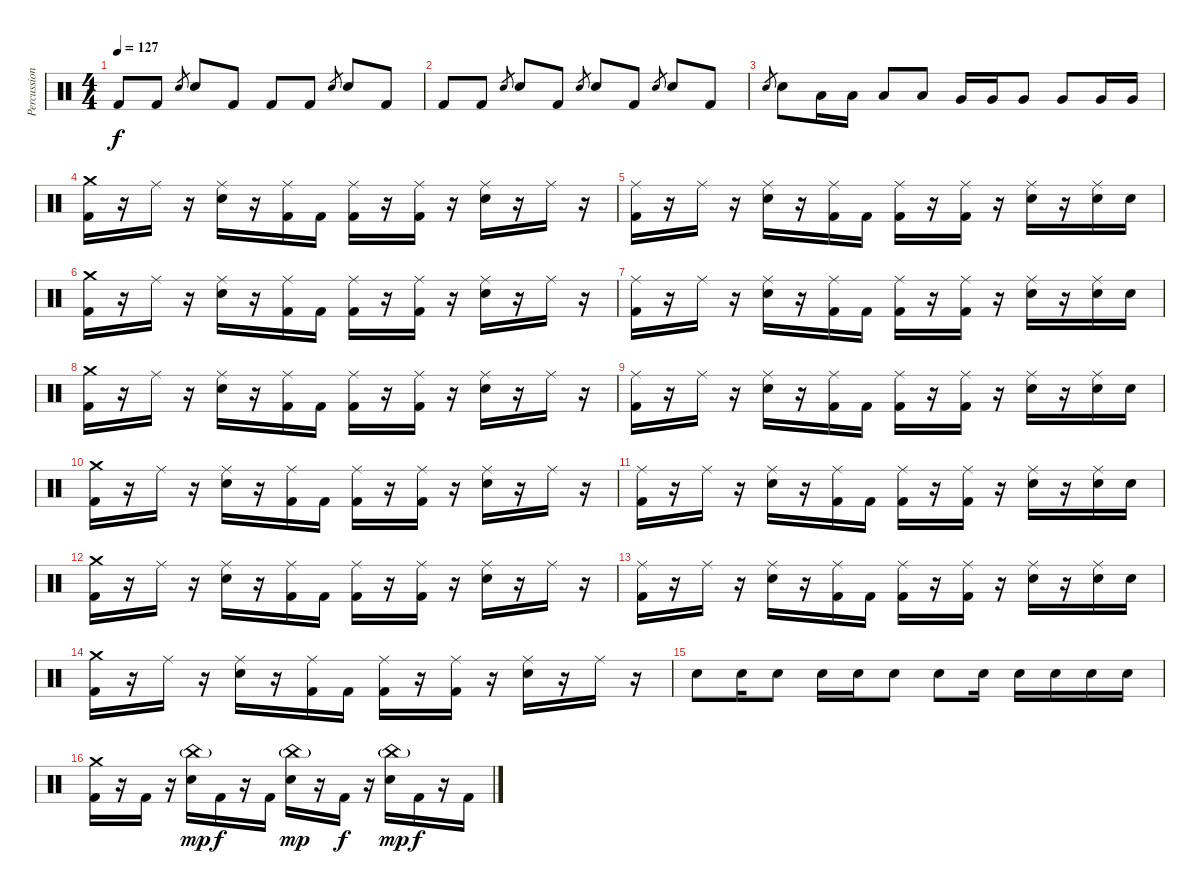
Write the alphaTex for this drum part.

\track ("Percussion" "Percussion") {instrument percussion}
\staff {score}
\articulation defaults
\ts (4 4)
\tempo 127
\clef neutral
\ks c "Kick (hit) 2".8{dy f} "Kick (hit) 2".8 "Electric Snare (hit)".8{gr} "Electric Snare (hit)".8 "Kick (hit) 2".8 "Kick (hit) 2".8 "Kick (hit) 2".8 "Electric Snare (hit)".8{gr} "Electric Snare (hit)".8 "Kick (hit) 2".8
|
"Kick (hit) 2".8 "Kick (hit) 2".8 "Electric Snare (hit)".8{gr} "Electric Snare (hit)".8 "Kick (hit) 2".8 "Electric Snare (hit)".8{gr} "Electric Snare (hit)".8 "Kick (hit) 2".8 "Electric Snare (hit)".8{gr} "Electric Snare (hit)".8 "Kick (hit) 2".8 |
"Electric Snare (hit)".8{gr} "Electric Snare (hit)".8 "Low Tom (hit)".16 "Low Tom (hit)".16 "Low Tom (hit)".8 "Low Tom (hit)".8 "Very Low Tom (hit)".16 "Very Low Tom (hit)".16 "Very Low Tom (hit)".8 "Very Low Tom (hit)".8 "Very Low Tom (hit)".16 "Very Low Tom (hit)".16 |
("Crash medium (hit)" "Kick (hit) 2").16 r.16 "Ride (middle)".16 r.16 ("Ride (middle)" "Electric Snare (hit)").16 r.16 ("Ride (middle)" "Kick (hit) 2").16 "Kick (hit) 2".16 ("Ride (middle)" "Kick (hit) 2").16 r.16 ("Ride (middle)" "Kick (hit) 2").16 r.16 ("Ride (middle)" "Electric Snare (hit)").16 r.16 "Ride (middle)".16 r.16 |
("Ride (middle)" "Kick (hit) 2").16 r.16 "Ride (middle)".16 r.16 ("Ride (middle)" "Electric Snare (hit)").16 r.16 ("Ride (middle)" "Kick (hit) 2").16 "Kick (hit) 2".16 ("Ride (middle)" "Kick (hit) 2").16 r.16 ("Ride (middle)" "Kick (hit) 2").16 r.16 ("Ride (middle)" "Electric Snare (hit)").16 r.16 ("Ride (middle)" "Electric Snare (hit)").16 "Electric Snare (hit)".16 |
("Crash medium (hit)" "Kick (hit) 2").16 r.16 "Ride (middle)".16 r.16 ("Ride (middle)" "Electric Snare (hit)").16 r.16 ("Ride (middle)" "Kick (hit) 2").16 "Kick (hit) 2".16 ("Ride (middle)" "Kick (hit) 2").16 r.16 ("Ride (middle)" "Kick (hit) 2").16 r.16 ("Ride (middle)" "Electric Snare (hit)").16 r.16 "Ride (middle)".16 r.16 |
("Ride (middle)" "Kick (hit) 2").16 r.16 "Ride (middle)".16 r.16 ("Ride (middle)" "Electric Snare (hit)").16 r.16 ("Ride (middle)" "Kick (hit) 2").16 "Kick (hit) 2".16 ("Ride (middle)" "Kick (hit) 2").16 r.16 ("Ride (middle)" "Kick (hit) 2").16 r.16 ("Ride (middle)" "Electric Snare (hit)").16 r.16 ("Ride (middle)" "Electric Snare (hit)").16 "Electric Snare (hit)".16 |
("Crash medium (hit)" "Kick (hit) 2").16 r.16 "Ride (middle)".16 r.16 ("Ride (middle)" "Electric Snare (hit)").16 r.16 ("Ride (middle)" "Kick (hit) 2").16 "Kick (hit) 2".16 ("Ride (middle)" "Kick (hit) 2").16 r.16 ("Ride (middle)" "Kick (hit) 2").16 r.16 ("Ride (middle)" "Electric Snare (hit)").16 r.16 "Ride (middle)".16 r.16 |
("Ride (middle)" "Kick (hit) 2").16 r.16 "Ride (middle)".16 r.16 ("Ride (middle)" "Electric Snare (hit)").16 r.16 ("Ride (middle)" "Kick (hit) 2").16 "Kick (hit) 2".16 ("Ride (middle)" "Kick (hit) 2").16 r.16 ("Ride (middle)" "Kick (hit) 2").16 r.16 ("Ride (middle)" "Electric Snare (hit)").16 r.16 ("Ride (middle)" "Electric Snare (hit)").16 "Electric Snare (hit)".16 |
("Crash medium (hit)" "Kick (hit) 2").16 r.16 "Ride (middle)".16 r.16 ("Ride (middle)" "Electric Snare (hit)").16 r.16 ("Ride (middle)" "Kick (hit) 2").16 "Kick (hit) 2".16 ("Ride (middle)" "Kick (hit) 2").16 r.16 ("Ride (middle)" "Kick (hit) 2").16 r.16 ("Ride (middle)" "Electric Snare (hit)").16 r.16 "Ride (middle)".16 r.16 |
("Ride (middle)" "Kick (hit) 2").16 r.16 "Ride (middle)".16 r.16 ("Ride (middle)" "Electric Snare (hit)").16 r.16 ("Ride (middle)" "Kick (hit) 2").16 "Kick (hit) 2".16 ("Ride (middle)" "Kick (hit) 2").16 r.16 ("Ride (middle)" "Kick (hit) 2").16 r.16 ("Ride (middle)" "Electric Snare (hit)").16 r.16 ("Ride (middle)" "Electric Snare (hit)").16 "Electric Snare (hit)".16 |
("Crash medium (hit)" "Kick (hit) 2").16 r.16 "Ride (middle)".16 r.16 ("Ride (middle)" "Electric Snare (hit)").16 r.16 ("Ride (middle)" "Kick (hit) 2").16 "Kick (hit) 2".16 ("Ride (middle)" "Kick (hit) 2").16 r.16 ("Ride (middle)" "Kick (hit) 2").16 r.16 ("Ride (middle)" "Electric Snare (hit)").16 r.16 "Ride (middle)".16 r.16 |
("Ride (middle)" "Kick (hit) 2").16 r.16 "Ride (middle)".16 r.16 ("Ride (middle)" "Electric Snare (hit)").16 r.16 ("Ride (middle)" "Kick (hit) 2").16 "Kick (hit) 2".16 ("Ride (middle)" "Kick (hit) 2").16 r.16 ("Ride (middle)" "Kick (hit) 2").16 r.16 ("Ride (middle)" "Electric Snare (hit)").16 r.16 ("Ride (middle)" "Electric Snare (hit)").16 "Electric Snare (hit)".16 |
("Crash medium (hit)" "Kick (hit) 2").16 r.16 "Ride (middle)".16 r.16 ("Ride (middle)" "Electric Snare (hit)").16 r.16 ("Ride (middle)" "Kick (hit) 2").16 "Kick (hit) 2".16 ("Ride (middle)" "Kick (hit) 2").16 r.16 ("Ride (middle)" "Kick (hit) 2").16 r.16 ("Ride (middle)" "Electric Snare (hit)").16 r.16 "Ride (middle)".16 r.16 |
"Electric Snare (hit)".8 "Electric Snare (hit)".16 "Electric Snare (hit)".8 "Electric Snare (hit)".16 "Electric Snare (hit)".16 "Electric Snare (hit)".8 "Electric Snare (hit)".8 "Electric Snare (hit)".16 "Electric Snare (hit)".16 "Electric Snare (hit)".16 "Electric Snare (hit)".16 "Electric Snare (hit)".16 |
("Crash medium (hit)" "Kick (hit) 2").16 r.16 "Kick (hit) 2".16 r.16 ("China (hit)"{g} "Electric Snare (hit)").16{dy mp} "Kick (hit) 2".16{dy f} r.16 "Kick (hit) 2".16 ("China (hit)"{g} "Electric Snare (hit)").16{dy mp} r.16 "Kick (hit) 2".16{dy f} r.16 ("China (hit)"{g} "Electric Snare (hit)").16{dy mp} "Kick (hit) 2".16{dy f} r.16 "Kick (hit) 2".16
